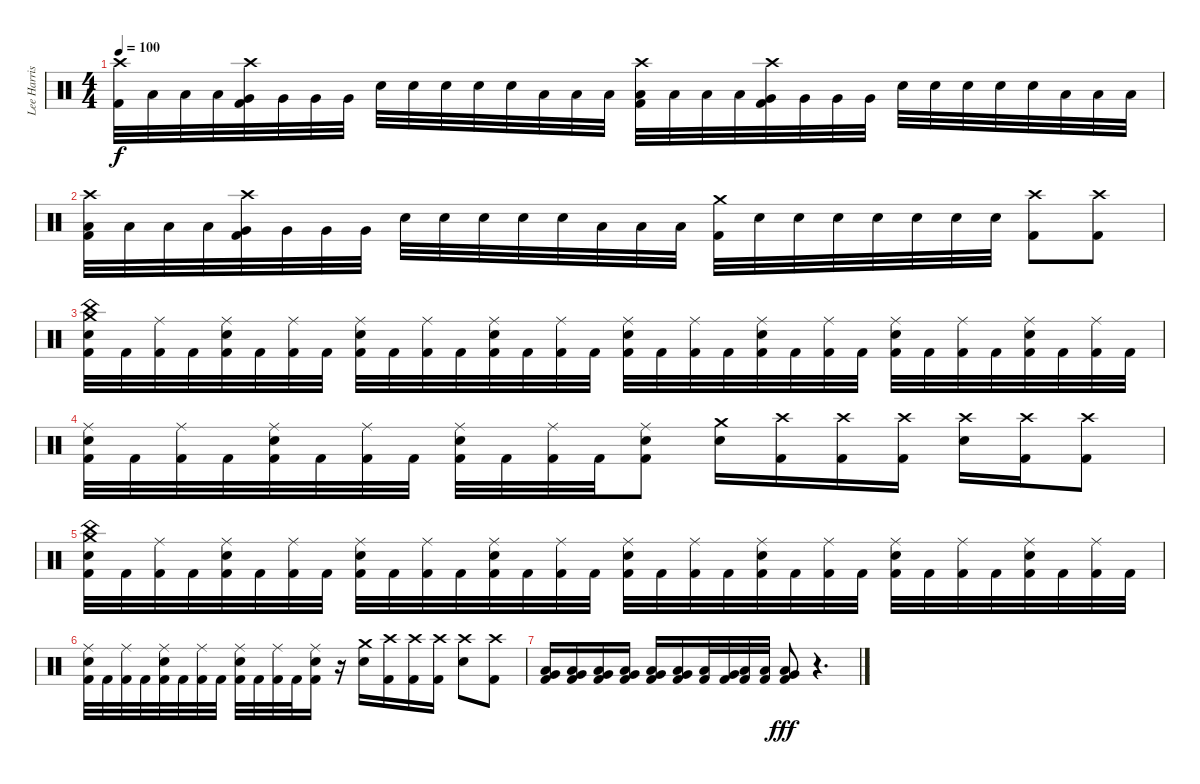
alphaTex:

\track ("Lee Harrison" "Lee Harris") {instrument percussion}
\staff {score}
\articulation defaults
\ts (4 4)
\tempo 100
\clef neutral
\ks c
("Crash high (hit)" "Kick (hit) 2").32{dy f} "Low Tom (hit)".32 "Low Tom (hit)".32 "Low Tom (hit)".32 ("Crash high (hit)" "Very Low Tom (hit)" "Kick (hit) 2").32 "Very Low Tom (hit)".32 "Very Low Tom (hit)".32 "Very Low Tom (hit)".32 "Electric Snare (hit)".32 "Electric Snare (hit)".32 "Electric Snare (hit)".32 "Electric Snare (hit)".32 "Electric Snare (hit)".32 "Low Floor Tom (hit)".32 "Low Floor Tom (hit)".32 "Low Floor Tom (hit)".32 ("Crash high (hit)" "Low Tom (hit)" "Kick (hit) 2").32 "Low Tom (hit)".32 "Low Tom (hit)".32 "Low Tom (hit)".32 ("Crash high (hit)" "Very Low Tom (hit)" "Kick (hit) 2").32 "Very Low Tom (hit)".32 "Very Low Tom (hit)".32 "Very Low Tom (hit)".32 "Electric Snare (hit)".32 "Electric Snare (hit)".32 "Electric Snare (hit)".32 "Electric Snare (hit)".32 "Electric Snare (hit)".32 "Low Floor Tom (hit)".32 "Low Floor Tom (hit)".32 "Low Floor Tom (hit)".32 |
("Crash high (hit)" "Low Tom (hit)" "Kick (hit) 2").32 "Low Tom (hit)".32 "Low Tom (hit)".32 "Low Tom (hit)".32 ("Crash high (hit)" "Very Low Tom (hit)" "Kick (hit) 2").32 "Very Low Tom (hit)".32 "Very Low Tom (hit)".32 "Very Low Tom (hit)".32 "Electric Snare (hit)".32 "Electric Snare (hit)".32 "Electric Snare (hit)".32 "Electric Snare (hit)".32 "Electric Snare (hit)".32 "Low Floor Tom (hit)".32 "Low Floor Tom (hit)".32 "Low Floor Tom (hit)".32 ("Crash medium (hit)" "Kick (hit) 2").32 "Electric Snare (hit)".32 "Electric Snare (hit)".32 "Electric Snare (hit)".32 "Electric Snare (hit)".32 "Electric Snare (hit)".32 "Electric Snare (hit)".32 "Electric Snare (hit)".32 ("Crash high (hit)" "Kick (hit) 2").8 ("Crash high (hit)" "Kick (hit) 2").8 |
("Crash medium (hit)" "China (hit)" "Electric Snare (hit)" "Kick (hit) 2").32 "Kick (hit) 2".32 ("Ride (middle)" "Kick (hit) 2").32 "Kick (hit) 2".32 ("Ride (middle)" "Electric Snare (hit)" "Kick (hit) 2").32 "Kick (hit) 2".32 ("Ride (middle)" "Kick (hit) 2").32 "Kick (hit) 2".32 ("Ride (middle)" "Electric Snare (hit)" "Kick (hit) 2").32 "Kick (hit) 2".32 ("Ride (middle)" "Kick (hit) 2").32 "Kick (hit) 2".32 ("Ride (middle)" "Electric Snare (hit)" "Kick (hit) 2").32 "Kick (hit) 2".32 ("Ride (middle)" "Kick (hit) 2").32 "Kick (hit) 2".32 ("Ride (middle)" "Electric Snare (hit)" "Kick (hit) 2").32 "Kick (hit) 2".32 ("Ride (middle)" "Kick (hit) 2").32 "Kick (hit) 2".32 ("Ride (middle)" "Electric Snare (hit)" "Kick (hit) 2").32 "Kick (hit) 2".32 ("Ride (middle)" "Kick (hit) 2").32 "Kick (hit) 2".32 ("Ride (middle)" "Electric Snare (hit)" "Kick (hit) 2").32 "Kick (hit) 2".32 ("Ride (middle)" "Kick (hit) 2").32 "Kick (hit) 2".32 ("Ride (middle)" "Electric Snare (hit)" "Kick (hit) 2").32 "Kick (hit) 2".32 ("Ride (middle)" "Kick (hit) 2").32 "Kick (hit) 2".32 |
("Ride (middle)" "Electric Snare (hit)" "Kick (hit) 2").32 "Kick (hit) 2".32 ("Ride (middle)" "Kick (hit) 2").32 "Kick (hit) 2".32 ("Ride (middle)" "Electric Snare (hit)" "Kick (hit) 2").32 "Kick (hit) 2".32 ("Ride (middle)" "Kick (hit) 2").32 "Kick (hit) 2".32 ("Ride (middle)" "Electric Snare (hit)" "Kick (hit) 2").32 "Kick (hit) 2".32 ("Ride (middle)" "Kick (hit) 2").32 "Kick (hit) 2".32 ("Ride (middle)" "Electric Snare (hit)" "Kick (hit) 2").8 ("Crash medium (hit)" "Electric Snare (hit)").16 ("Crash high (hit)" "Kick (hit) 2").16 ("Crash high (hit)" "Kick (hit) 2").16 ("Crash high (hit)" "Kick (hit) 2").16 ("Crash high (hit)" "Electric Snare (hit)").16 ("Crash high (hit)" "Kick (hit) 2").16 ("Crash high (hit)" "Kick (hit) 2").8 |
("Crash medium (hit)" "China (hit)" "Electric Snare (hit)" "Kick (hit) 2").32 "Kick (hit) 2".32 ("Ride (middle)" "Kick (hit) 2").32 "Kick (hit) 2".32 ("Ride (middle)" "Electric Snare (hit)" "Kick (hit) 2").32 "Kick (hit) 2".32 ("Ride (middle)" "Kick (hit) 2").32 "Kick (hit) 2".32 ("Ride (middle)" "Electric Snare (hit)" "Kick (hit) 2").32 "Kick (hit) 2".32 ("Ride (middle)" "Kick (hit) 2").32 "Kick (hit) 2".32 ("Ride (middle)" "Electric Snare (hit)" "Kick (hit) 2").32 "Kick (hit) 2".32 ("Ride (middle)" "Kick (hit) 2").32 "Kick (hit) 2".32 ("Ride (middle)" "Electric Snare (hit)" "Kick (hit) 2").32 "Kick (hit) 2".32 ("Ride (middle)" "Kick (hit) 2").32 "Kick (hit) 2".32 ("Ride (middle)" "Electric Snare (hit)" "Kick (hit) 2").32 "Kick (hit) 2".32 ("Ride (middle)" "Kick (hit) 2").32 "Kick (hit) 2".32 ("Ride (middle)" "Electric Snare (hit)" "Kick (hit) 2").32 "Kick (hit) 2".32 ("Ride (middle)" "Kick (hit) 2").32 "Kick (hit) 2".32 ("Ride (middle)" "Electric Snare (hit)" "Kick (hit) 2").32 "Kick (hit) 2".32 ("Ride (middle)" "Kick (hit) 2").32 "Kick (hit) 2".32 |
("Ride (middle)" "Electric Snare (hit)" "Kick (hit) 2").32 "Kick (hit) 2".32 ("Ride (middle)" "Kick (hit) 2").32 "Kick (hit) 2".32 ("Ride (middle)" "Electric Snare (hit)" "Kick (hit) 2").32 "Kick (hit) 2".32 ("Ride (middle)" "Kick (hit) 2").32 "Kick (hit) 2".32 ("Ride (middle)" "Electric Snare (hit)" "Kick (hit) 2").32 "Kick (hit) 2".32 ("Ride (middle)" "Kick (hit) 2").32 "Kick (hit) 2".32 ("Ride (middle)" "Electric Snare (hit)" "Kick (hit) 2").16 r.16 ("Crash medium (hit)" "Electric Snare (hit)").16 ("Crash high (hit)" "Kick (hit) 2").16 ("Crash high (hit)" "Kick (hit) 2").16 ("Crash high (hit)" "Kick (hit) 2").16 ("Crash high (hit)" "Electric Snare (hit)").8 ("Crash high (hit)" "Kick (hit) 2").8 |
("Low Tom (hit)" "Very Low Tom (hit)" "Kick (hit) 2").16 ("Very Low Tom (hit)" "Low Floor Tom (hit)" "Kick (hit) 2").16 ("Low Tom (hit)" "Very Low Tom (hit)" "Kick (hit) 2").16 ("Very Low Tom (hit)" "Low Floor Tom (hit)" "Kick (hit) 2").16 ("Low Tom (hit)" "Very Low Tom (hit)" "Kick (hit) 2").16 ("Very Low Tom (hit)" "Low Floor Tom (hit)" "Kick (hit) 2").16 ("Low Tom (hit)" "Kick (hit) 2").32 ("Very Low Tom (hit)" "Kick (hit) 2").32 ("Low Floor Tom (hit)" "Kick (hit) 2").32 ("Low Floor Tom (hit)" "Kick (hit) 2").32 ("Very Low Tom (hit)" "Low Floor Tom (hit)" "Kick (hit) 2").8{dy fff} r.4{d}
